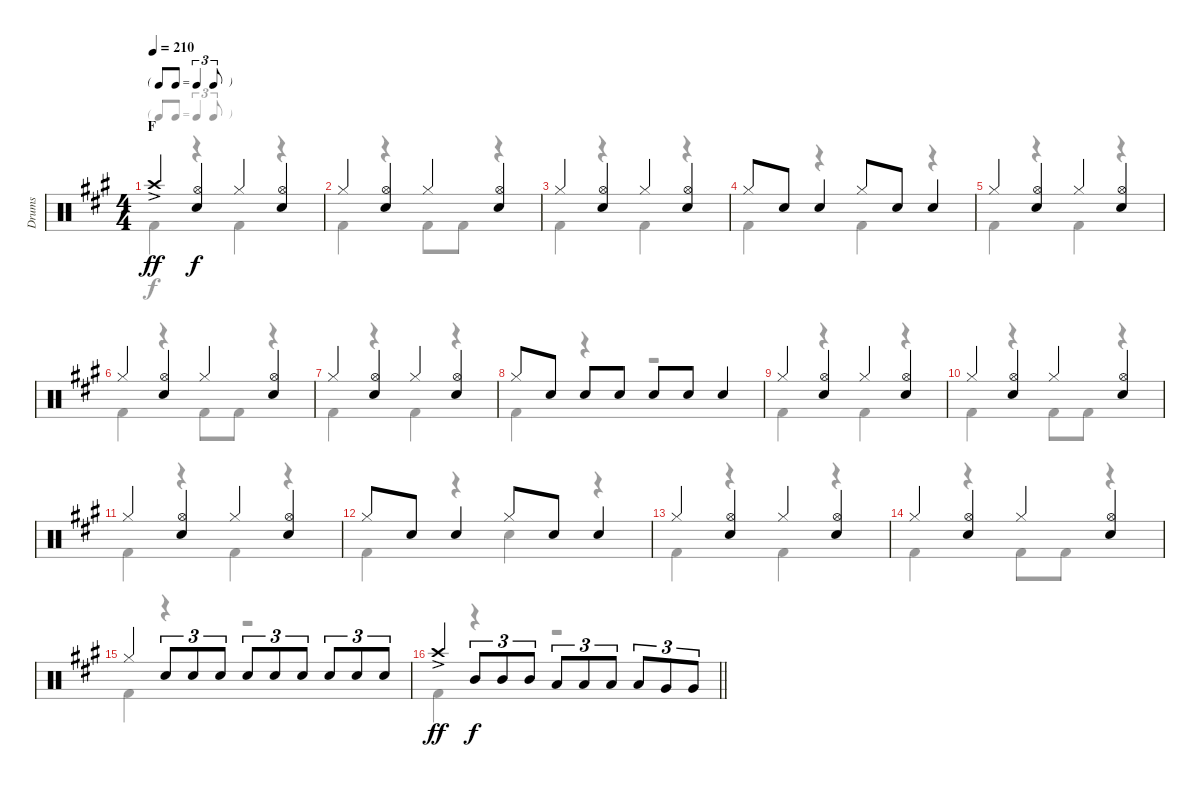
\track ("Drums" "Drums") {instrument percussion}
\staff {score}
\articulation defaults
\voice
\ts (4 4)
\tf triplet8th
\section ("" "F")
\tempo 210
\clef neutral
\ks a "Crash high (hit)"{ac}.4{dy ff}
("Hi-Hat (open)" "Snare (hit) 2").4{dy f} "Hi-Hat (closed)".4 ("Hi-Hat (open)" "Snare (hit) 2").4 |
"Hi-Hat (closed)".4 ("Hi-Hat (open)" "Snare (hit) 2").4 "Hi-Hat (closed)".4 ("Hi-Hat (open)" "Snare (hit) 2").4 |
"Hi-Hat (closed)".4 ("Hi-Hat (open)" "Snare (hit) 2").4 "Hi-Hat (closed)".4 ("Hi-Hat (open)" "Snare (hit) 2").4 |
"Hi-Hat (closed)".8 "Snare (hit) 2".8 "Snare (hit) 2".4 "Hi-Hat (closed)".8 "Snare (hit) 2".8 "Snare (hit) 2".4 |
"Hi-Hat (closed)".4 ("Hi-Hat (open)" "Snare (hit) 2").4 "Hi-Hat (closed)".4 ("Hi-Hat (open)" "Snare (hit) 2").4 |
"Hi-Hat (closed)".4 ("Hi-Hat (open)" "Snare (hit) 2").4 "Hi-Hat (closed)".4 ("Hi-Hat (open)" "Snare (hit) 2").4 |
"Hi-Hat (closed)".4 ("Hi-Hat (open)" "Snare (hit) 2").4 "Hi-Hat (closed)".4 ("Hi-Hat (open)" "Snare (hit) 2").4 |
"Hi-Hat (closed)".8 "Snare (hit) 2".8 "Snare (hit) 2".8 "Snare (hit) 2".8 "Snare (hit) 2".8 "Snare (hit) 2".8 "Snare (hit) 2".4 |
"Hi-Hat (closed)".4 ("Hi-Hat (open)" "Snare (hit) 2").4 "Hi-Hat (closed)".4 ("Hi-Hat (open)" "Snare (hit) 2").4 |
"Hi-Hat (closed)".4 ("Hi-Hat (open)" "Snare (hit) 2").4 "Hi-Hat (closed)".4 ("Hi-Hat (open)" "Snare (hit) 2").4 |
"Hi-Hat (closed)".4 ("Hi-Hat (open)" "Snare (hit) 2").4 "Hi-Hat (closed)".4 ("Hi-Hat (open)" "Snare (hit) 2").4 |
"Hi-Hat (closed)".8 "Snare (hit) 2".8 "Snare (hit) 2".4 "Hi-Hat (closed)".8 "Snare (hit) 2".8 "Snare (hit) 2".4 |
"Hi-Hat (closed)".4 ("Hi-Hat (open)" "Snare (hit) 2").4 "Hi-Hat (closed)".4 ("Hi-Hat (open)" "Snare (hit) 2").4 |
"Hi-Hat (closed)".4 ("Hi-Hat (open)" "Snare (hit) 2").4 "Hi-Hat (closed)".4 ("Hi-Hat (open)" "Snare (hit) 2").4 |
"Hi-Hat (closed)".4 "Snare (hit) 2".8{tu (3 2)} "Snare (hit) 2".8{tu (3 2)} "Snare (hit) 2".8{tu (3 2)} "Snare (hit) 2".8{tu (3 2)} "Snare (hit) 2".8{tu (3 2)} "Snare (hit) 2".8{tu (3 2)} "Snare (hit) 2".8{tu (3 2)} "Snare (hit) 2".8{tu (3 2)} "Snare (hit) 2".8{tu (3 2)} |
\barLineRight lightlight "Crash high (hit)"{ac}.4{dy ff} "Mid Tom (hit)".8{tu (3 2) dy f} "Mid Tom (hit)".8{tu (3 2)} "Mid Tom (hit)".8{tu (3 2)} "Low Tom (hit)".8{tu (3 2)} "Low Tom (hit)".8{tu (3 2)} "Low Tom (hit)".8{tu (3 2)} "Low Tom (hit)".8{tu (3 2)} "Very Low Tom (hit)".8{tu (3 2)} "Very Low Tom (hit)".8{tu (3 2)}
\voice
\clef neutral
\ottava regular
\simile none
\ks a "Kick (hit) 2".4{dy f}
r.4 "Kick (hit) 2".4 r.4 |
"Kick (hit) 2".4 r.4 "Kick (hit) 2".8 "Kick (hit) 2".8 r.4 |
"Kick (hit) 2".4 r.4 "Kick (hit) 2".4 r.4 |
"Kick (hit) 2".4 r.4 "Kick (hit) 2".4 r.4 |
"Kick (hit) 2".4 r.4 "Kick (hit) 2".4 r.4 |
"Kick (hit) 2".4 r.4 "Kick (hit) 2".8 "Kick (hit) 2".8 r.4 |
"Kick (hit) 2".4 r.4 "Kick (hit) 2".4 r.4 |
"Kick (hit) 2".4 r.4 r.2 |
"Kick (hit) 2".4 r.4 "Kick (hit) 2".4 r.4 |
"Kick (hit) 2".4 r.4 "Kick (hit) 2".8 "Kick (hit) 2".8 r.4 |
"Kick (hit) 2".4 r.4 "Kick (hit) 2".4 r.4 |
"Kick (hit) 2".4 r.4 "Snare (hit) 2".4 r.4 |
"Kick (hit) 2".4 r.4 "Kick (hit) 2".4 r.4 |
"Kick (hit) 2".4 r.4 "Kick (hit) 2".8 "Kick (hit) 2".8 r.4 |
"Kick (hit) 2".4 r.4 r.2 |
\barLineRight lightlight "Kick (hit) 2".4
r.4 r.2
